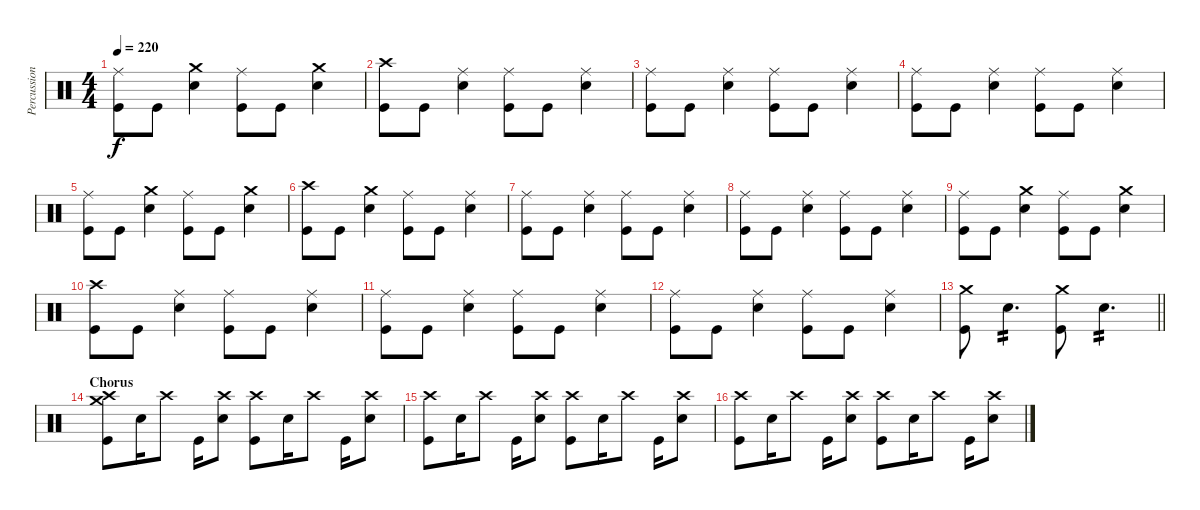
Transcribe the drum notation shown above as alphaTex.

\track ("Percussion" "Percussion") {instrument percussion}
\staff {score}
\articulation defaults
\ts (4 4)
\tempo 220
\clef neutral
\ks c
("Ride (middle)" "Kick (hit)").8{dy f} "Kick (hit)".8 ("Crash medium (hit)" "Snare (hit) 2").4 ("Ride (middle)" "Kick (hit)").8 "Kick (hit)".8 ("Crash medium (hit)" "Snare (hit) 2").4 |
("Crash high (hit)" "Kick (hit)").8 "Kick (hit)".8 ("Ride (middle)" "Snare (hit) 2").4 ("Ride (middle)" "Kick (hit)").8 "Kick (hit)".8 ("Ride (middle)" "Snare (hit) 2").4 |
("Ride (middle)" "Kick (hit)").8 "Kick (hit)".8 ("Ride (middle)" "Snare (hit) 2").4 ("Ride (middle)" "Kick (hit)").8 "Kick (hit)".8 ("Ride (middle)" "Snare (hit) 2").4 |
("Ride (middle)" "Kick (hit)").8 "Kick (hit)".8 ("Ride (middle)" "Snare (hit) 2").4 ("Ride (middle)" "Kick (hit)").8 "Kick (hit)".8 ("Ride (middle)" "Snare (hit) 2").4 |
("Ride (middle)" "Kick (hit)").8 "Kick (hit)".8 ("Crash medium (hit)" "Snare (hit) 2").4 ("Ride (middle)" "Kick (hit)").8 "Kick (hit)".8 ("Crash medium (hit)" "Snare (hit) 2").4 |
("Crash high (hit)" "Kick (hit)").8 "Kick (hit)".8 ("Crash medium (hit)" "Snare (hit) 2").4 ("Ride (middle)" "Kick (hit)").8 "Kick (hit)".8 ("Ride (middle)" "Snare (hit) 2").4 |
("Ride (middle)" "Kick (hit)").8 "Kick (hit)".8 ("Ride (middle)" "Snare (hit) 2").4 ("Ride (middle)" "Kick (hit)").8 "Kick (hit)".8 ("Ride (middle)" "Snare (hit) 2").4 |
("Ride (middle)" "Kick (hit)").8 "Kick (hit)".8 ("Ride (middle)" "Snare (hit) 2").4 ("Ride (middle)" "Kick (hit)").8 "Kick (hit)".8 ("Ride (middle)" "Snare (hit) 2").4 |
("Ride (middle)" "Kick (hit)").8 "Kick (hit)".8 ("Crash medium (hit)" "Snare (hit) 2").4 ("Ride (middle)" "Kick (hit)").8 "Kick (hit)".8 ("Crash medium (hit)" "Snare (hit) 2").4 |
("Crash high (hit)" "Kick (hit)").8 "Kick (hit)".8 ("Ride (middle)" "Snare (hit) 2").4 ("Ride (middle)" "Kick (hit)").8 "Kick (hit)".8 ("Ride (middle)" "Snare (hit) 2").4 |
("Ride (middle)" "Kick (hit)").8 "Kick (hit)".8 ("Ride (middle)" "Snare (hit) 2").4 ("Ride (middle)" "Kick (hit)").8 "Kick (hit)".8 ("Ride (middle)" "Snare (hit) 2").4 |
("Ride (middle)" "Kick (hit)").8 "Kick (hit)".8 ("Ride (middle)" "Snare (hit) 2").4 ("Ride (middle)" "Kick (hit)").8 "Kick (hit)".8 ("Ride (middle)" "Snare (hit) 2").4 |
\barLineRight lightlight
("Crash medium (hit)" "Kick (hit)").8 "Snare (hit) 2".4{d tp 2} ("Crash medium (hit)" "Kick (hit)").8 "Snare (hit) 2".4{d tp 2} |
\section ("" "Chorus")
("Crash medium (hit)" "Kick (hit)" "Crash high (hit)").8 "Snare (hit) 2".16 "Crash high (hit)".8 "Kick (hit)".16 ("Snare (hit) 2" "Crash high (hit)").8 ("Kick (hit)" "Crash high (hit)").8 "Snare (hit) 2".16 "Crash high (hit)".8 "Kick (hit)".16 ("Snare (hit) 2" "Crash high (hit)").8 |
("Kick (hit)" "Crash high (hit)").8 "Snare (hit) 2".16 "Crash high (hit)".8 "Kick (hit)".16 ("Snare (hit) 2" "Crash high (hit)").8 ("Kick (hit)" "Crash high (hit)").8 "Snare (hit) 2".16 "Crash high (hit)".8 "Kick (hit)".16 ("Snare (hit) 2" "Crash high (hit)").8 |
("Kick (hit)" "Crash high (hit)").8 "Snare (hit) 2".16 "Crash high (hit)".8 "Kick (hit)".16 ("Snare (hit) 2" "Crash high (hit)").8 ("Kick (hit)" "Crash high (hit)").8 "Snare (hit) 2".16 "Crash high (hit)".8 "Kick (hit)".16 ("Snare (hit) 2" "Crash high (hit)").8
